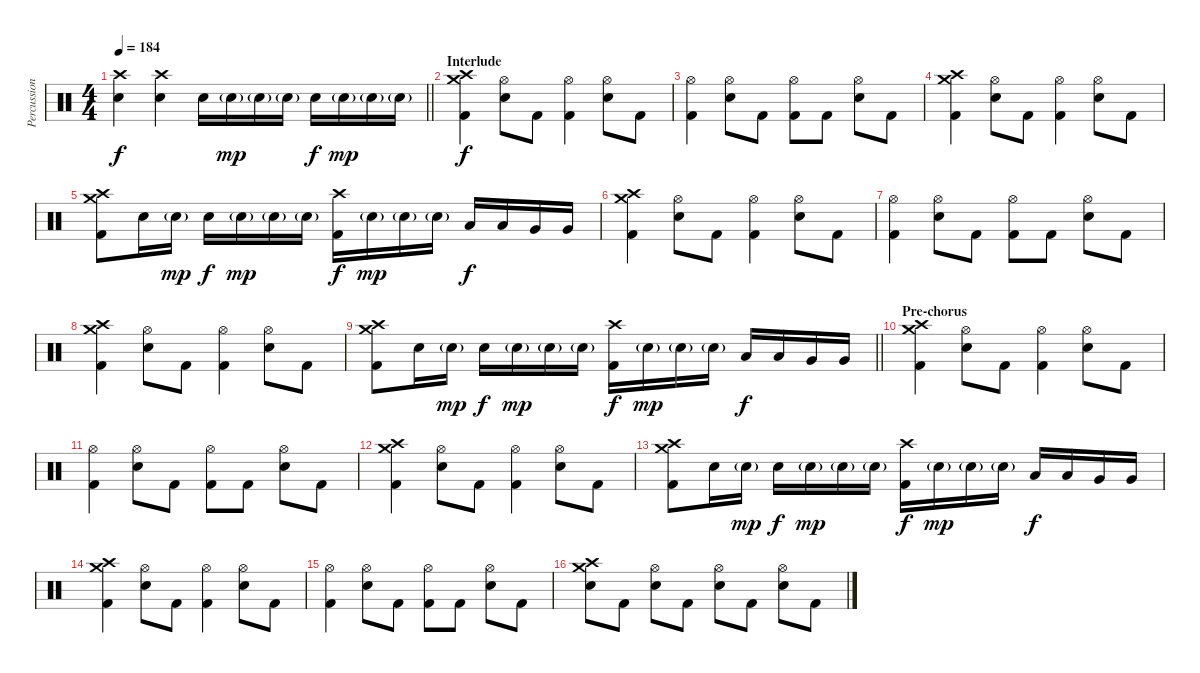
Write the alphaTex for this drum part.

\track ("Percussion" "Percussion") {instrument percussion}
\staff {score}
\articulation defaults
\ts (4 4)
\tempo 184
\clef neutral
\barLineRight lightlight
\ks c
("Crash high (hit)" "Electric Snare (hit)").4{dy f} ("Crash high (hit)" "Electric Snare (hit)").4 "Electric Snare (hit)".16 "Electric Snare (hit)"{g}.16{dy mp} "Electric Snare (hit)"{g}.16 "Electric Snare (hit)"{g}.16 "Electric Snare (hit)".16{dy f} "Electric Snare (hit)"{g}.16{dy mp} "Electric Snare (hit)"{g}.16 "Electric Snare (hit)"{g}.16 |
\section ("" "Interlude")
("Crash high (hit)" "Crash medium (hit)" "Kick (hit) 2").4{dy f} ("Hi-Hat (open)" "Electric Snare (hit)").8 "Kick (hit) 2".8 ("Hi-Hat (open)" "Kick (hit) 2").4 ("Hi-Hat (open)" "Electric Snare (hit)").8 "Kick (hit) 2".8 |
("Hi-Hat (open)" "Kick (hit) 2").4 ("Hi-Hat (open)" "Electric Snare (hit)").8 "Kick (hit) 2".8 ("Hi-Hat (open)" "Kick (hit) 2").8 "Kick (hit) 2".8 ("Hi-Hat (open)" "Electric Snare (hit)").8 "Kick (hit) 2".8 |
("Crash high (hit)" "Crash medium (hit)" "Kick (hit) 2").4 ("Hi-Hat (open)" "Electric Snare (hit)").8 "Kick (hit) 2".8 ("Hi-Hat (open)" "Kick (hit) 2").4 ("Hi-Hat (open)" "Electric Snare (hit)").8 "Kick (hit) 2".8 |
("Crash high (hit)" "Crash medium (hit)" "Kick (hit) 2").8 "Electric Snare (hit)".16 "Electric Snare (hit)"{g}.16{dy mp} "Electric Snare (hit)".16{dy f} "Electric Snare (hit)"{g}.16{dy mp} "Electric Snare (hit)"{g}.16 "Electric Snare (hit)"{g}.16 ("Crash high (hit)" "Kick (hit) 2").16{dy f} "Electric Snare (hit)"{g}.16{dy mp} "Electric Snare (hit)"{g}.16 "Electric Snare (hit)"{g}.16 "Low Tom (hit)".16{dy f} "Low Tom (hit)".16 "Very Low Tom (hit)".16 "Very Low Tom (hit)".16 |
("Crash high (hit)" "Crash medium (hit)" "Kick (hit) 2").4 ("Hi-Hat (open)" "Electric Snare (hit)").8 "Kick (hit) 2".8 ("Hi-Hat (open)" "Kick (hit) 2").4 ("Hi-Hat (open)" "Electric Snare (hit)").8 "Kick (hit) 2".8 |
("Hi-Hat (open)" "Kick (hit) 2").4 ("Hi-Hat (open)" "Electric Snare (hit)").8 "Kick (hit) 2".8 ("Hi-Hat (open)" "Kick (hit) 2").8 "Kick (hit) 2".8 ("Hi-Hat (open)" "Electric Snare (hit)").8 "Kick (hit) 2".8 |
("Crash high (hit)" "Crash medium (hit)" "Kick (hit) 2").4 ("Hi-Hat (open)" "Electric Snare (hit)").8 "Kick (hit) 2".8 ("Hi-Hat (open)" "Kick (hit) 2").4 ("Hi-Hat (open)" "Electric Snare (hit)").8 "Kick (hit) 2".8 |
\barLineRight lightlight
("Crash high (hit)" "Crash medium (hit)" "Kick (hit) 2").8 "Electric Snare (hit)".16 "Electric Snare (hit)"{g}.16{dy mp} "Electric Snare (hit)".16{dy f} "Electric Snare (hit)"{g}.16{dy mp} "Electric Snare (hit)"{g}.16 "Electric Snare (hit)"{g}.16 ("Crash high (hit)" "Kick (hit) 2").16{dy f} "Electric Snare (hit)"{g}.16{dy mp} "Electric Snare (hit)"{g}.16 "Electric Snare (hit)"{g}.16 "Low Tom (hit)".16{dy f} "Low Tom (hit)".16 "Very Low Tom (hit)".16 "Very Low Tom (hit)".16 |
\section ("" "Pre-chorus")
("Crash high (hit)" "Crash medium (hit)" "Kick (hit) 2").4{volume 12} ("Hi-Hat (open)" "Electric Snare (hit)").8 "Kick (hit) 2".8 ("Hi-Hat (open)" "Kick (hit) 2").4 ("Hi-Hat (open)" "Electric Snare (hit)").8 "Kick (hit) 2".8 |
("Hi-Hat (open)" "Kick (hit) 2").4 ("Hi-Hat (open)" "Electric Snare (hit)").8 "Kick (hit) 2".8 ("Hi-Hat (open)" "Kick (hit) 2").8 "Kick (hit) 2".8 ("Hi-Hat (open)" "Electric Snare (hit)").8 "Kick (hit) 2".8 |
("Crash high (hit)" "Crash medium (hit)" "Kick (hit) 2").4 ("Hi-Hat (open)" "Electric Snare (hit)").8 "Kick (hit) 2".8 ("Hi-Hat (open)" "Kick (hit) 2").4 ("Hi-Hat (open)" "Electric Snare (hit)").8 "Kick (hit) 2".8 |
("Crash high (hit)" "Crash medium (hit)" "Kick (hit) 2").8 "Electric Snare (hit)".16 "Electric Snare (hit)"{g}.16{dy mp} "Electric Snare (hit)".16{dy f} "Electric Snare (hit)"{g}.16{dy mp} "Electric Snare (hit)"{g}.16 "Electric Snare (hit)"{g}.16 ("Crash high (hit)" "Kick (hit) 2").16{dy f} "Electric Snare (hit)"{g}.16{dy mp} "Electric Snare (hit)"{g}.16 "Electric Snare (hit)"{g}.16 "Low Tom (hit)".16{dy f} "Low Tom (hit)".16 "Very Low Tom (hit)".16 "Very Low Tom (hit)".16 |
("Crash high (hit)" "Crash medium (hit)" "Kick (hit) 2").4 ("Hi-Hat (open)" "Electric Snare (hit)").8 "Kick (hit) 2".8 ("Hi-Hat (open)" "Kick (hit) 2").4 ("Hi-Hat (open)" "Electric Snare (hit)").8 "Kick (hit) 2".8 |
("Hi-Hat (open)" "Kick (hit) 2").4 ("Hi-Hat (open)" "Electric Snare (hit)").8 "Kick (hit) 2".8 ("Hi-Hat (open)" "Kick (hit) 2").8 "Kick (hit) 2".8 ("Hi-Hat (open)" "Electric Snare (hit)").8 "Kick (hit) 2".8 |
("Crash high (hit)" "Crash medium (hit)" "Electric Snare (hit)").8 "Kick (hit) 2".8 ("Hi-Hat (open)" "Electric Snare (hit)").8 "Kick (hit) 2".8 ("Hi-Hat (open)" "Electric Snare (hit)").8 "Kick (hit) 2".8 ("Hi-Hat (open)" "Electric Snare (hit)").8 "Kick (hit) 2".8
